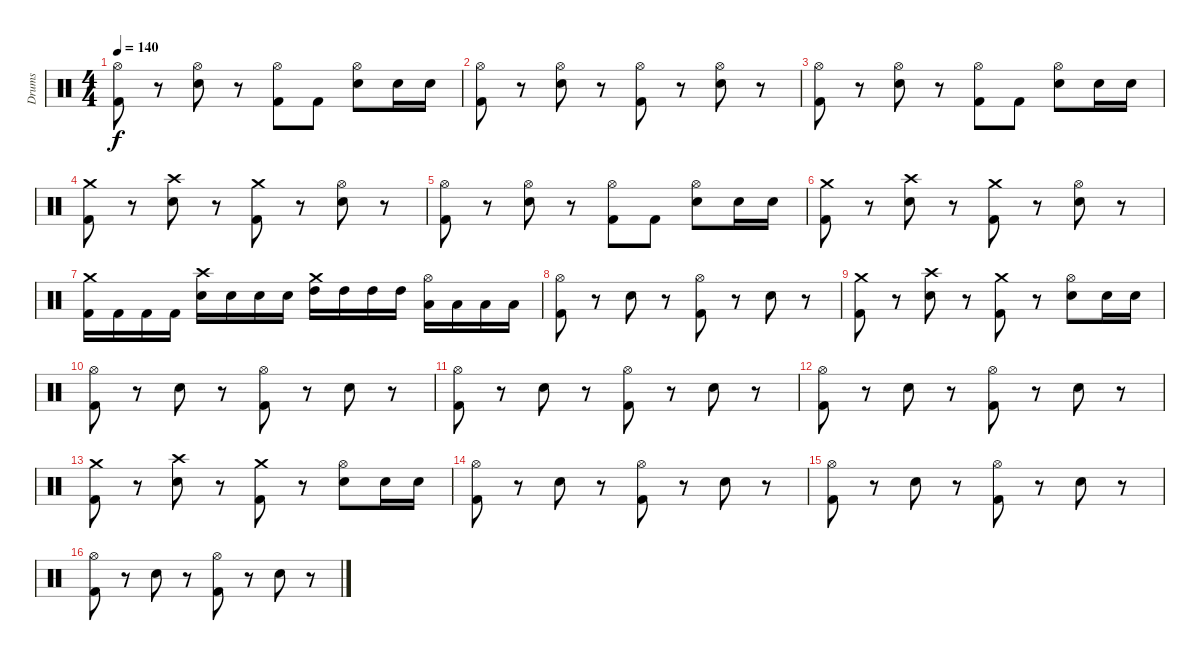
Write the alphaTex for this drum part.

\track ("Drums" "Drums") {instrument percussion}
\staff {score}
\articulation defaults
\ts (4 4)
\tempo 140
\clef neutral
\ks c
("Hi-Hat (open)" "Kick (hit) 2").8{dy f} r.8 ("Hi-Hat (open)" "Snare (hit) 2").8 r.8 ("Hi-Hat (open)" "Kick (hit) 2").8 "Kick (hit) 2".8 ("Hi-Hat (open)" "Snare (hit) 2").8 "Snare (hit) 2".16 "Snare (hit) 2".16 |
("Hi-Hat (open)" "Kick (hit) 2").8 r.8 ("Hi-Hat (open)" "Snare (hit) 2").8 r.8 ("Hi-Hat (open)" "Kick (hit) 2").8 r.8 ("Hi-Hat (open)" "Snare (hit) 2").8 r.8 |
("Hi-Hat (open)" "Kick (hit) 2").8 r.8 ("Hi-Hat (open)" "Snare (hit) 2").8 r.8 ("Hi-Hat (open)" "Kick (hit) 2").8 "Kick (hit) 2".8 ("Hi-Hat (open)" "Snare (hit) 2").8 "Snare (hit) 2".16 "Snare (hit) 2".16 |
("Crash medium (hit)" "Kick (hit) 2").8 r.8 ("Crash high (hit)" "Snare (hit) 2").8 r.8 ("Crash medium (hit)" "Kick (hit) 2").8 r.8 ("Hi-Hat (open)" "Snare (hit) 2").8 r.8 |
("Hi-Hat (open)" "Kick (hit) 2").8 r.8 ("Hi-Hat (open)" "Snare (hit) 2").8 r.8 ("Hi-Hat (open)" "Kick (hit) 2").8 "Kick (hit) 2".8 ("Hi-Hat (open)" "Snare (hit) 2").8 "Snare (hit) 2".16 "Snare (hit) 2".16 |
("Crash medium (hit)" "Kick (hit) 2").8 r.8 ("Crash high (hit)" "Snare (hit) 2").8 r.8 ("Crash medium (hit)" "Kick (hit) 2").8 r.8 ("Hi-Hat (open)" "Snare (hit) 2").8 r.8 |
("Crash medium (hit)" "Kick (hit) 2").16 "Kick (hit) 2".16 "Kick (hit) 2".16 "Kick (hit) 2".16 ("Crash high (hit)" "Snare (hit) 2").16 "Snare (hit) 2".16 "Snare (hit) 2".16 "Snare (hit) 2".16 ("Crash medium (hit)" "High Tom (hit)").16 "High Tom (hit)".16 "High Tom (hit)".16 "High Tom (hit)".16 ("Hi-Hat (open)" "Low Tom (hit)").16 "Low Tom (hit)".16 "Low Tom (hit)".16 "Low Tom (hit)".16 |
("Hi-Hat (open)" "Kick (hit) 2").8 r.8 "Snare (hit) 2".8 r.8 ("Hi-Hat (open)" "Kick (hit) 2").8 r.8 "Snare (hit) 2".8 r.8 |
("Crash medium (hit)" "Kick (hit) 2").8 r.8 ("Crash high (hit)" "Snare (hit) 2").8 r.8 ("Crash medium (hit)" "Kick (hit) 2").8 r.8 ("Hi-Hat (open)" "Snare (hit) 2").8 "Snare (hit) 2".16 "Snare (hit) 2".16 |
("Hi-Hat (open)" "Kick (hit) 2").8 r.8 "Snare (hit) 2".8 r.8 ("Hi-Hat (open)" "Kick (hit) 2").8 r.8 "Snare (hit) 2".8 r.8 |
("Hi-Hat (open)" "Kick (hit) 2").8 r.8 "Snare (hit) 2".8 r.8 ("Hi-Hat (open)" "Kick (hit) 2").8 r.8 "Snare (hit) 2".8 r.8 |
("Hi-Hat (open)" "Kick (hit) 2").8 r.8 "Snare (hit) 2".8 r.8 ("Hi-Hat (open)" "Kick (hit) 2").8 r.8 "Snare (hit) 2".8 r.8 |
("Crash medium (hit)" "Kick (hit) 2").8 r.8 ("Crash high (hit)" "Snare (hit) 2").8 r.8 ("Crash medium (hit)" "Kick (hit) 2").8 r.8 ("Hi-Hat (open)" "Snare (hit) 2").8 "Snare (hit) 2".16 "Snare (hit) 2".16 |
("Hi-Hat (open)" "Kick (hit) 2").8 r.8 "Snare (hit) 2".8 r.8 ("Hi-Hat (open)" "Kick (hit) 2").8 r.8 "Snare (hit) 2".8 r.8 |
("Hi-Hat (open)" "Kick (hit) 2").8 r.8 "Snare (hit) 2".8 r.8 ("Hi-Hat (open)" "Kick (hit) 2").8 r.8 "Snare (hit) 2".8 r.8 |
("Hi-Hat (open)" "Kick (hit) 2").8 r.8 "Snare (hit) 2".8 r.8 ("Hi-Hat (open)" "Kick (hit) 2").8 r.8 "Snare (hit) 2".8 r.8
